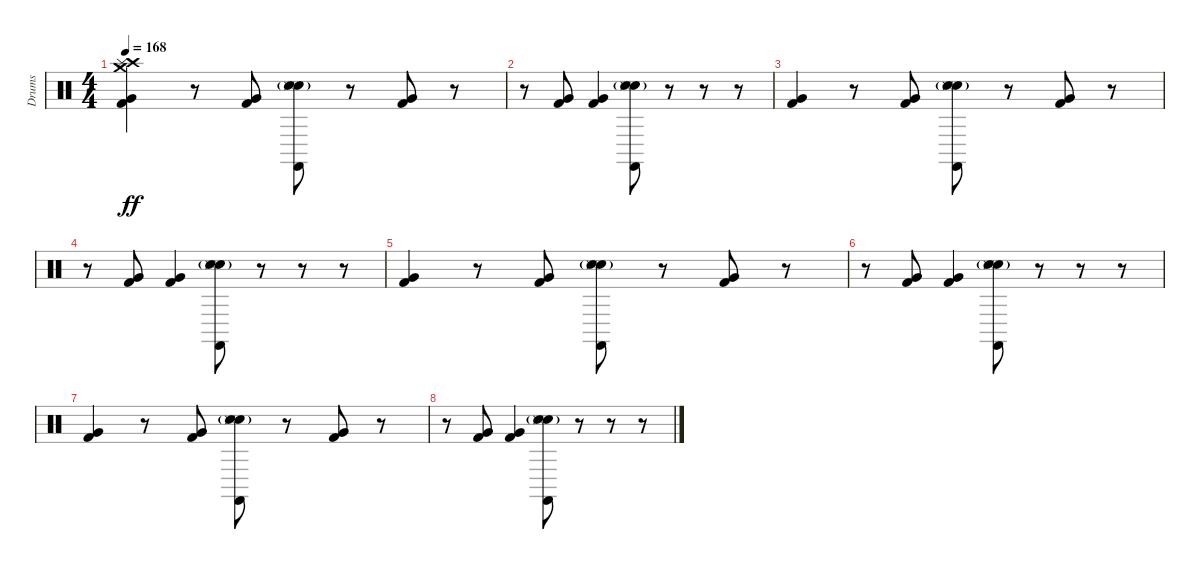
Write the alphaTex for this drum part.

\track ("Drums" "Drums") {instrument percussion}
\staff {score}
\articulation defaults
\ts (4 4)
\tempo 168
\clef neutral
\ks c
("Crash medium (hit)" "Crash high (hit)" "Splash (hit)" "Very Low Tom (hit)" "Kick (hit) 2").4{dy ff} r.8 ("Very Low Tom (hit)" "Kick (hit) 2").8 ("Snare (hit) 2" "Hand Clap (hit)"{g} "Castanets (hit)" "Snare (side stick) 3").8 r.8 ("Very Low Tom (hit)" "Kick (hit) 2").8 r.8 |
r.8 ("Very Low Tom (hit)" "Kick (hit) 2").8 ("Very Low Tom (hit)" "Kick (hit) 2").4 ("Snare (hit) 2" "Hand Clap (hit)"{g} "Castanets (hit)" "Snare (side stick) 3").8 r.8 r.8 r.8 |
("Very Low Tom (hit)" "Kick (hit) 2").4 r.8 ("Very Low Tom (hit)" "Kick (hit) 2").8 ("Snare (hit) 2" "Hand Clap (hit)"{g} "Castanets (hit)" "Snare (side stick) 3").8 r.8 ("Very Low Tom (hit)" "Kick (hit) 2").8 r.8 |
r.8 ("Very Low Tom (hit)" "Kick (hit) 2").8 ("Very Low Tom (hit)" "Kick (hit) 2").4 ("Snare (hit) 2" "Hand Clap (hit)"{g} "Castanets (hit)" "Snare (side stick) 3").8 r.8 r.8 r.8 |
("Very Low Tom (hit)" "Kick (hit) 2").4 r.8 ("Very Low Tom (hit)" "Kick (hit) 2").8 ("Snare (hit) 2" "Hand Clap (hit)"{g} "Castanets (hit)" "Snare (side stick) 3").8 r.8 ("Very Low Tom (hit)" "Kick (hit) 2").8 r.8 |
r.8 ("Very Low Tom (hit)" "Kick (hit) 2").8 ("Very Low Tom (hit)" "Kick (hit) 2").4 ("Snare (hit) 2" "Hand Clap (hit)"{g} "Castanets (hit)" "Snare (side stick) 3").8 r.8 r.8 r.8 |
("Very Low Tom (hit)" "Kick (hit) 2").4 r.8 ("Very Low Tom (hit)" "Kick (hit) 2").8 ("Snare (hit) 2" "Hand Clap (hit)"{g} "Castanets (hit)" "Snare (side stick) 3").8 r.8 ("Very Low Tom (hit)" "Kick (hit) 2").8 r.8 |
r.8 ("Very Low Tom (hit)" "Kick (hit) 2").8 ("Very Low Tom (hit)" "Kick (hit) 2").4 ("Snare (hit) 2" "Hand Clap (hit)"{g} "Castanets (hit)" "Snare (side stick) 3").8 r.8 r.8 r.8
